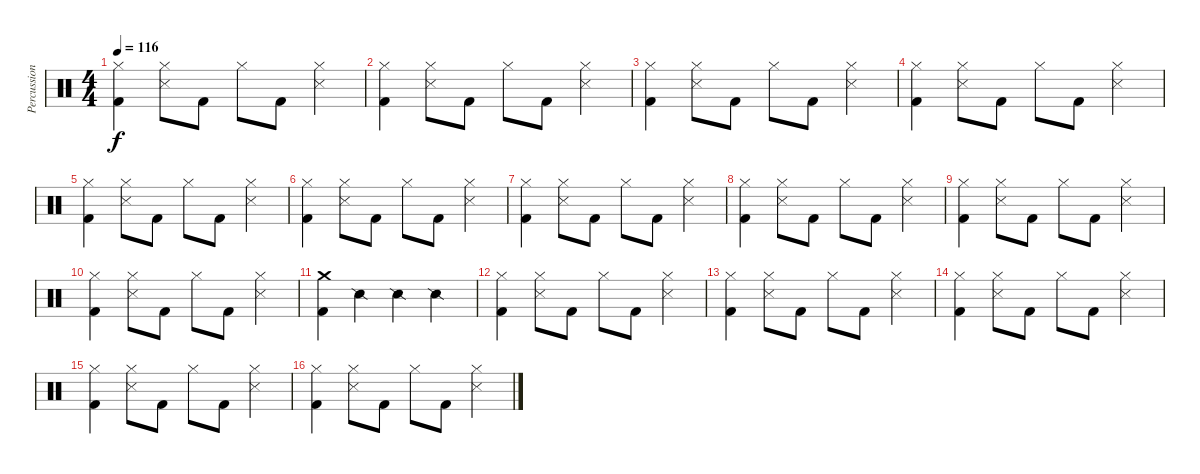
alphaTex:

\track ("Percussions" "Percussion") {instrument percussion}
\staff {score}
\articulation defaults
\ts (4 4)
\tempo 116
\clef neutral
\ks c
("Hi-Hat (closed)" "Kick (hit) 2").4{dy f} ("Hi-Hat (closed)" "Snare (side stick) 3").8 "Kick (hit) 2".8 "Hi-Hat (closed)".8 "Kick (hit) 2".8 ("Hi-Hat (closed)" "Snare (side stick) 3").4 |
("Hi-Hat (closed)" "Kick (hit) 2").4 ("Hi-Hat (closed)" "Snare (side stick) 3").8 "Kick (hit) 2".8 "Hi-Hat (closed)".8 "Kick (hit) 2".8 ("Hi-Hat (closed)" "Snare (side stick) 3").4 |
("Hi-Hat (closed)" "Kick (hit) 2").4 ("Hi-Hat (closed)" "Snare (side stick) 3").8 "Kick (hit) 2".8 "Hi-Hat (closed)".8 "Kick (hit) 2".8 ("Hi-Hat (closed)" "Snare (side stick) 3").4 |
("Hi-Hat (closed)" "Kick (hit) 2").4 ("Hi-Hat (closed)" "Snare (side stick) 3").8 "Kick (hit) 2".8 "Hi-Hat (closed)".8 "Kick (hit) 2".8 ("Hi-Hat (closed)" "Snare (side stick) 3").4 |
("Hi-Hat (closed)" "Kick (hit) 2").4 ("Hi-Hat (closed)" "Snare (side stick) 3").8 "Kick (hit) 2".8 "Hi-Hat (closed)".8 "Kick (hit) 2".8 ("Hi-Hat (closed)" "Snare (side stick) 3").4 |
("Hi-Hat (closed)" "Kick (hit) 2").4 ("Hi-Hat (closed)" "Snare (side stick) 3").8 "Kick (hit) 2".8 "Hi-Hat (closed)".8 "Kick (hit) 2".8 ("Hi-Hat (closed)" "Snare (side stick) 3").4 |
("Hi-Hat (closed)" "Kick (hit) 2").4 ("Hi-Hat (closed)" "Snare (side stick) 3").8 "Kick (hit) 2".8 "Hi-Hat (closed)".8 "Kick (hit) 2".8 ("Hi-Hat (closed)" "Snare (side stick) 3").4 |
("Hi-Hat (closed)" "Kick (hit) 2").4 ("Hi-Hat (closed)" "Snare (side stick) 3").8 "Kick (hit) 2".8 "Hi-Hat (closed)".8 "Kick (hit) 2".8 ("Hi-Hat (closed)" "Snare (side stick) 3").4 |
("Hi-Hat (closed)" "Kick (hit) 2").4 ("Hi-Hat (closed)" "Snare (side stick) 3").8 "Kick (hit) 2".8 "Hi-Hat (closed)".8 "Kick (hit) 2".8 ("Hi-Hat (closed)" "Snare (side stick) 3").4 |
("Hi-Hat (closed)" "Kick (hit) 2").4 ("Hi-Hat (closed)" "Snare (side stick) 3").8 "Kick (hit) 2".8 "Hi-Hat (closed)".8 "Kick (hit) 2".8 ("Hi-Hat (closed)" "Snare (side stick) 3").4 |
("Crash medium (hit)" "Kick (hit) 2").4 "Snare (side stick) 2".4 "Snare (side stick) 2".4 "Snare (side stick) 2".4 |
("Hi-Hat (closed)" "Kick (hit) 2").4 ("Hi-Hat (closed)" "Snare (side stick) 3").8 "Kick (hit) 2".8 "Hi-Hat (closed)".8 "Kick (hit) 2".8 ("Hi-Hat (closed)" "Snare (side stick) 3").4 |
("Hi-Hat (closed)" "Kick (hit) 2").4 ("Hi-Hat (closed)" "Snare (side stick) 3").8 "Kick (hit) 2".8 "Hi-Hat (closed)".8 "Kick (hit) 2".8 ("Hi-Hat (closed)" "Snare (side stick) 3").4 |
("Hi-Hat (closed)" "Kick (hit) 2").4 ("Hi-Hat (closed)" "Snare (side stick) 3").8 "Kick (hit) 2".8 "Hi-Hat (closed)".8 "Kick (hit) 2".8 ("Hi-Hat (closed)" "Snare (side stick) 3").4 |
("Hi-Hat (closed)" "Kick (hit) 2").4 ("Hi-Hat (closed)" "Snare (side stick) 3").8 "Kick (hit) 2".8 "Hi-Hat (closed)".8 "Kick (hit) 2".8 ("Hi-Hat (closed)" "Snare (side stick) 3").4 |
("Hi-Hat (closed)" "Kick (hit) 2").4 ("Hi-Hat (closed)" "Snare (side stick) 3").8 "Kick (hit) 2".8 "Hi-Hat (closed)".8 "Kick (hit) 2".8 ("Hi-Hat (closed)" "Snare (side stick) 3").4
